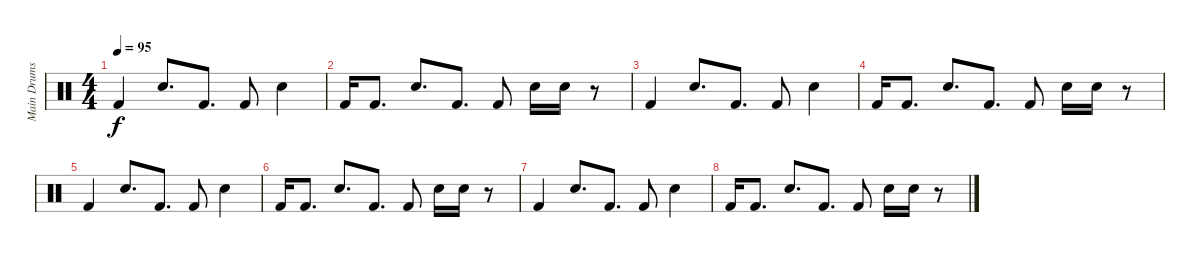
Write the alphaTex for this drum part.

\track ("Main Drums" "Main Drums") {instrument percussion}
\staff {score}
\articulation defaults
\ts (4 4)
\tempo 95
\clef neutral
\ks c "Kick (hit) 2".4{dy f} "Snare (hit) 2".8{d} "Kick (hit) 2".8{d} "Kick (hit) 2".8 "Snare (hit) 2".4
|
"Kick (hit) 2".16 "Kick (hit) 2".8{d} "Snare (hit) 2".8{d} "Kick (hit) 2".8{d} "Kick (hit) 2".8 "Snare (hit) 2".16 "Snare (hit) 2".16 r.8 |
"Kick (hit) 2".4 "Snare (hit) 2".8{d} "Kick (hit) 2".8{d} "Kick (hit) 2".8 "Snare (hit) 2".4 |
"Kick (hit) 2".16 "Kick (hit) 2".8{d} "Snare (hit) 2".8{d} "Kick (hit) 2".8{d} "Kick (hit) 2".8 "Snare (hit) 2".16 "Snare (hit) 2".16 r.8 |
"Kick (hit) 2".4 "Snare (hit) 2".8{d} "Kick (hit) 2".8{d} "Kick (hit) 2".8 "Snare (hit) 2".4 |
"Kick (hit) 2".16{volume 0} "Kick (hit) 2".8{d} "Snare (hit) 2".8{d} "Kick (hit) 2".8{d} "Kick (hit) 2".8 "Snare (hit) 2".16 "Snare (hit) 2".16 r.8 |
"Kick (hit) 2".4 "Snare (hit) 2".8{d} "Kick (hit) 2".8{d} "Kick (hit) 2".8 "Snare (hit) 2".4 |
"Kick (hit) 2".16 "Kick (hit) 2".8{d} "Snare (hit) 2".8{d} "Kick (hit) 2".8{d} "Kick (hit) 2".8 "Snare (hit) 2".16 "Snare (hit) 2".16 r.8
